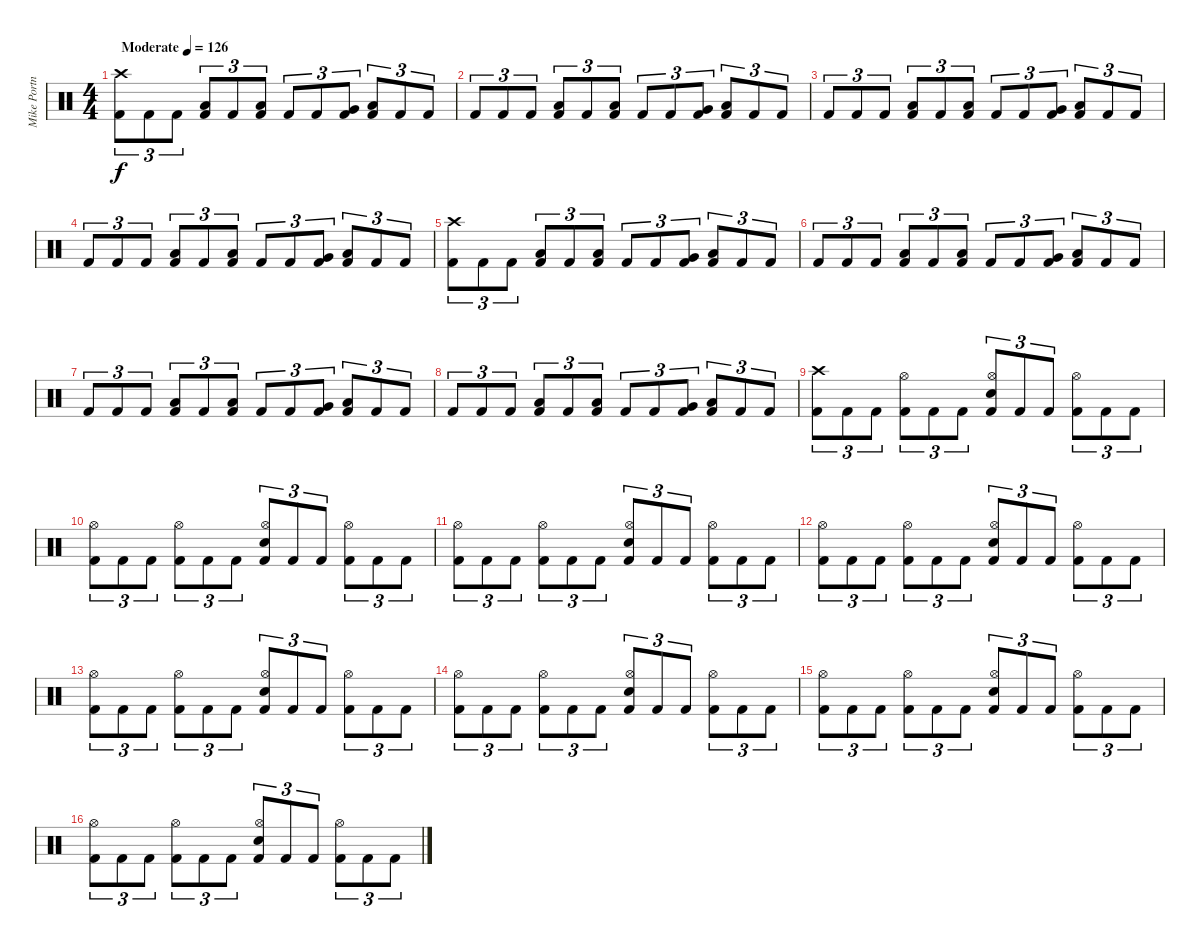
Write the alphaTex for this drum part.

\track ("Mike Portnoy" "Mike Portn") {instrument percussion}
\staff {score}
\articulation defaults
\ts (4 4)
\tempo (126 "Moderate")
\clef neutral
\ks c
("Crash high (hit)" "Kick (hit) 2").8{tu (3 2) dy f volume 13} "Kick (hit) 2".8{tu (3 2)} "Kick (hit) 2".8{tu (3 2)} ("Low Tom (hit)" "Kick (hit) 2").8{tu (3 2)} "Kick (hit) 2".8{tu (3 2)} ("Low Tom (hit)" "Kick (hit) 2").8{tu (3 2)} "Kick (hit) 2".8{tu (3 2)} "Kick (hit) 2".8{tu (3 2)} ("Very Low Tom (hit)" "Kick (hit) 2").8{tu (3 2)} ("Low Tom (hit)" "Kick (hit) 2").8{tu (3 2)} "Kick (hit) 2".8{tu (3 2)} "Kick (hit) 2".8{tu (3 2)} |
"Kick (hit) 2".8{tu (3 2)} "Kick (hit) 2".8{tu (3 2)} "Kick (hit) 2".8{tu (3 2)} ("Low Tom (hit)" "Kick (hit) 2").8{tu (3 2)} "Kick (hit) 2".8{tu (3 2)} ("Low Tom (hit)" "Kick (hit) 2").8{tu (3 2)} "Kick (hit) 2".8{tu (3 2)} "Kick (hit) 2".8{tu (3 2)} ("Very Low Tom (hit)" "Kick (hit) 2").8{tu (3 2)} ("Low Tom (hit)" "Kick (hit) 2").8{tu (3 2)} "Kick (hit) 2".8{tu (3 2)} "Kick (hit) 2".8{tu (3 2)} |
"Kick (hit) 2".8{tu (3 2)} "Kick (hit) 2".8{tu (3 2)} "Kick (hit) 2".8{tu (3 2)} ("Low Tom (hit)" "Kick (hit) 2").8{tu (3 2)} "Kick (hit) 2".8{tu (3 2)} ("Low Tom (hit)" "Kick (hit) 2").8{tu (3 2)} "Kick (hit) 2".8{tu (3 2)} "Kick (hit) 2".8{tu (3 2)} ("Very Low Tom (hit)" "Kick (hit) 2").8{tu (3 2)} ("Low Tom (hit)" "Kick (hit) 2").8{tu (3 2)} "Kick (hit) 2".8{tu (3 2)} "Kick (hit) 2".8{tu (3 2)} |
"Kick (hit) 2".8{tu (3 2)} "Kick (hit) 2".8{tu (3 2)} "Kick (hit) 2".8{tu (3 2)} ("Low Tom (hit)" "Kick (hit) 2").8{tu (3 2)} "Kick (hit) 2".8{tu (3 2)} ("Low Tom (hit)" "Kick (hit) 2").8{tu (3 2)} "Kick (hit) 2".8{tu (3 2)} "Kick (hit) 2".8{tu (3 2)} ("Very Low Tom (hit)" "Kick (hit) 2").8{tu (3 2)} ("Low Tom (hit)" "Kick (hit) 2").8{tu (3 2)} "Kick (hit) 2".8{tu (3 2)} "Kick (hit) 2".8{tu (3 2)} |
("Crash high (hit)" "Kick (hit) 2").8{tu (3 2)} "Kick (hit) 2".8{tu (3 2)} "Kick (hit) 2".8{tu (3 2)} ("Low Tom (hit)" "Kick (hit) 2").8{tu (3 2)} "Kick (hit) 2".8{tu (3 2)} ("Low Tom (hit)" "Kick (hit) 2").8{tu (3 2)} "Kick (hit) 2".8{tu (3 2)} "Kick (hit) 2".8{tu (3 2)} ("Very Low Tom (hit)" "Kick (hit) 2").8{tu (3 2)} ("Low Tom (hit)" "Kick (hit) 2").8{tu (3 2)} "Kick (hit) 2".8{tu (3 2)} "Kick (hit) 2".8{tu (3 2)} |
"Kick (hit) 2".8{tu (3 2)} "Kick (hit) 2".8{tu (3 2)} "Kick (hit) 2".8{tu (3 2)} ("Low Tom (hit)" "Kick (hit) 2").8{tu (3 2)} "Kick (hit) 2".8{tu (3 2)} ("Low Tom (hit)" "Kick (hit) 2").8{tu (3 2)} "Kick (hit) 2".8{tu (3 2)} "Kick (hit) 2".8{tu (3 2)} ("Very Low Tom (hit)" "Kick (hit) 2").8{tu (3 2)} ("Low Tom (hit)" "Kick (hit) 2").8{tu (3 2)} "Kick (hit) 2".8{tu (3 2)} "Kick (hit) 2".8{tu (3 2)} |
"Kick (hit) 2".8{tu (3 2)} "Kick (hit) 2".8{tu (3 2)} "Kick (hit) 2".8{tu (3 2)} ("Low Tom (hit)" "Kick (hit) 2").8{tu (3 2)} "Kick (hit) 2".8{tu (3 2)} ("Low Tom (hit)" "Kick (hit) 2").8{tu (3 2)} "Kick (hit) 2".8{tu (3 2)} "Kick (hit) 2".8{tu (3 2)} ("Very Low Tom (hit)" "Kick (hit) 2").8{tu (3 2)} ("Low Tom (hit)" "Kick (hit) 2").8{tu (3 2)} "Kick (hit) 2".8{tu (3 2)} "Kick (hit) 2".8{tu (3 2)} |
"Kick (hit) 2".8{tu (3 2)} "Kick (hit) 2".8{tu (3 2)} "Kick (hit) 2".8{tu (3 2)} ("Low Tom (hit)" "Kick (hit) 2").8{tu (3 2)} "Kick (hit) 2".8{tu (3 2)} ("Low Tom (hit)" "Kick (hit) 2").8{tu (3 2)} "Kick (hit) 2".8{tu (3 2)} "Kick (hit) 2".8{tu (3 2)} ("Very Low Tom (hit)" "Kick (hit) 2").8{tu (3 2)} ("Low Tom (hit)" "Kick (hit) 2").8{tu (3 2)} "Kick (hit) 2".8{tu (3 2)} "Kick (hit) 2".8{tu (3 2)} |
("Crash high (hit)" "Kick (hit) 2").8{tu (3 2)} "Kick (hit) 2".8{tu (3 2)} "Kick (hit) 2".8{tu (3 2)} ("Hi-Hat (open)" "Kick (hit) 2").8{tu (3 2)} "Kick (hit) 2".8{tu (3 2)} "Kick (hit) 2".8{tu (3 2)} ("Hi-Hat (open)" "Electric Snare (hit)" "Kick (hit) 2").8{tu (3 2)} "Kick (hit) 2".8{tu (3 2)} "Kick (hit) 2".8{tu (3 2)} ("Hi-Hat (open)" "Kick (hit) 2").8{tu (3 2)} "Kick (hit) 2".8{tu (3 2)} "Kick (hit) 2".8{tu (3 2)} |
("Hi-Hat (open)" "Kick (hit) 2").8{tu (3 2)} "Kick (hit) 2".8{tu (3 2)} "Kick (hit) 2".8{tu (3 2)} ("Hi-Hat (open)" "Kick (hit) 2").8{tu (3 2)} "Kick (hit) 2".8{tu (3 2)} "Kick (hit) 2".8{tu (3 2)} ("Hi-Hat (open)" "Electric Snare (hit)" "Kick (hit) 2").8{tu (3 2)} "Kick (hit) 2".8{tu (3 2)} "Kick (hit) 2".8{tu (3 2)} ("Hi-Hat (open)" "Kick (hit) 2").8{tu (3 2)} "Kick (hit) 2".8{tu (3 2)} "Kick (hit) 2".8{tu (3 2)} |
("Hi-Hat (open)" "Kick (hit) 2").8{tu (3 2)} "Kick (hit) 2".8{tu (3 2)} "Kick (hit) 2".8{tu (3 2)} ("Hi-Hat (open)" "Kick (hit) 2").8{tu (3 2)} "Kick (hit) 2".8{tu (3 2)} "Kick (hit) 2".8{tu (3 2)} ("Hi-Hat (open)" "Electric Snare (hit)" "Kick (hit) 2").8{tu (3 2)} "Kick (hit) 2".8{tu (3 2)} "Kick (hit) 2".8{tu (3 2)} ("Hi-Hat (open)" "Kick (hit) 2").8{tu (3 2)} "Kick (hit) 2".8{tu (3 2)} "Kick (hit) 2".8{tu (3 2)} |
("Hi-Hat (open)" "Kick (hit) 2").8{tu (3 2)} "Kick (hit) 2".8{tu (3 2)} "Kick (hit) 2".8{tu (3 2)} ("Hi-Hat (open)" "Kick (hit) 2").8{tu (3 2)} "Kick (hit) 2".8{tu (3 2)} "Kick (hit) 2".8{tu (3 2)} ("Hi-Hat (open)" "Electric Snare (hit)" "Kick (hit) 2").8{tu (3 2)} "Kick (hit) 2".8{tu (3 2)} "Kick (hit) 2".8{tu (3 2)} ("Hi-Hat (open)" "Kick (hit) 2").8{tu (3 2)} "Kick (hit) 2".8{tu (3 2)} "Kick (hit) 2".8{tu (3 2)} |
("Hi-Hat (open)" "Kick (hit) 2").8{tu (3 2)} "Kick (hit) 2".8{tu (3 2)} "Kick (hit) 2".8{tu (3 2)} ("Hi-Hat (open)" "Kick (hit) 2").8{tu (3 2)} "Kick (hit) 2".8{tu (3 2)} "Kick (hit) 2".8{tu (3 2)} ("Hi-Hat (open)" "Electric Snare (hit)" "Kick (hit) 2").8{tu (3 2)} "Kick (hit) 2".8{tu (3 2)} "Kick (hit) 2".8{tu (3 2)} ("Hi-Hat (open)" "Kick (hit) 2").8{tu (3 2)} "Kick (hit) 2".8{tu (3 2)} "Kick (hit) 2".8{tu (3 2)} |
("Hi-Hat (open)" "Kick (hit) 2").8{tu (3 2)} "Kick (hit) 2".8{tu (3 2)} "Kick (hit) 2".8{tu (3 2)} ("Hi-Hat (open)" "Kick (hit) 2").8{tu (3 2)} "Kick (hit) 2".8{tu (3 2)} "Kick (hit) 2".8{tu (3 2)} ("Hi-Hat (open)" "Electric Snare (hit)" "Kick (hit) 2").8{tu (3 2)} "Kick (hit) 2".8{tu (3 2)} "Kick (hit) 2".8{tu (3 2)} ("Hi-Hat (open)" "Kick (hit) 2").8{tu (3 2)} "Kick (hit) 2".8{tu (3 2)} "Kick (hit) 2".8{tu (3 2)} |
("Hi-Hat (open)" "Kick (hit) 2").8{tu (3 2)} "Kick (hit) 2".8{tu (3 2)} "Kick (hit) 2".8{tu (3 2)} ("Hi-Hat (open)" "Kick (hit) 2").8{tu (3 2)} "Kick (hit) 2".8{tu (3 2)} "Kick (hit) 2".8{tu (3 2)} ("Hi-Hat (open)" "Electric Snare (hit)" "Kick (hit) 2").8{tu (3 2)} "Kick (hit) 2".8{tu (3 2)} "Kick (hit) 2".8{tu (3 2)} ("Hi-Hat (open)" "Kick (hit) 2").8{tu (3 2)} "Kick (hit) 2".8{tu (3 2)} "Kick (hit) 2".8{tu (3 2)} |
("Hi-Hat (open)" "Kick (hit) 2").8{tu (3 2)} "Kick (hit) 2".8{tu (3 2)} "Kick (hit) 2".8{tu (3 2)} ("Hi-Hat (open)" "Kick (hit) 2").8{tu (3 2)} "Kick (hit) 2".8{tu (3 2)} "Kick (hit) 2".8{tu (3 2)} ("Hi-Hat (open)" "Electric Snare (hit)" "Kick (hit) 2").8{tu (3 2)} "Kick (hit) 2".8{tu (3 2)} "Kick (hit) 2".8{tu (3 2)} ("Hi-Hat (open)" "Kick (hit) 2").8{tu (3 2)} "Kick (hit) 2".8{tu (3 2)} "Kick (hit) 2".8{tu (3 2)}
